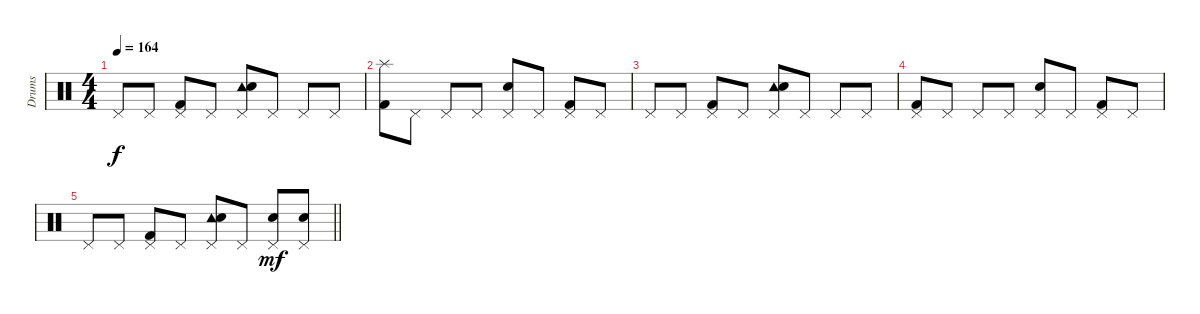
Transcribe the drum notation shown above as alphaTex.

\track ("Drums" "Drums") {instrument percussion}
\staff {score}
\articulation defaults
\ts (4 4)
\tempo 164
\clef neutral
\ks c "Pedal Hi-Hat (hit)".8{dy f} "Pedal Hi-Hat (hit)".8
("Pedal Hi-Hat (hit)" "Kick (hit) 2").8 "Pedal Hi-Hat (hit)".8 ("Tambourine (hit)" "Pedal Hi-Hat (hit)" "Snare (hit) 2").8 "Pedal Hi-Hat (hit)".8 "Pedal Hi-Hat (hit)".8 "Pedal Hi-Hat (hit)".8 |
("Splash (hit)" "Kick (hit) 2").8 "Pedal Hi-Hat (hit)".8 "Pedal Hi-Hat (hit)".8 "Pedal Hi-Hat (hit)".8 ("Pedal Hi-Hat (hit)" "Snare (hit) 2").8 "Pedal Hi-Hat (hit)".8 ("Pedal Hi-Hat (hit)" "Kick (hit) 2").8 "Pedal Hi-Hat (hit)".8 |
"Pedal Hi-Hat (hit)".8 "Pedal Hi-Hat (hit)".8 ("Pedal Hi-Hat (hit)" "Kick (hit) 2").8 "Pedal Hi-Hat (hit)".8 ("Tambourine (hit)" "Pedal Hi-Hat (hit)" "Snare (hit) 2").8 "Pedal Hi-Hat (hit)".8 "Pedal Hi-Hat (hit)".8 "Pedal Hi-Hat (hit)".8 |
("Pedal Hi-Hat (hit)" "Kick (hit) 2").8 "Pedal Hi-Hat (hit)".8 "Pedal Hi-Hat (hit)".8 "Pedal Hi-Hat (hit)".8 ("Pedal Hi-Hat (hit)" "Snare (hit) 2").8 "Pedal Hi-Hat (hit)".8 ("Pedal Hi-Hat (hit)" "Kick (hit) 2").8 "Pedal Hi-Hat (hit)".8 |
\barLineRight lightlight "Pedal Hi-Hat (hit)".8 "Pedal Hi-Hat (hit)".8
("Pedal Hi-Hat (hit)" "Kick (hit) 2").8 "Pedal Hi-Hat (hit)".8 ("Tambourine (hit)" "Pedal Hi-Hat (hit)" "Snare (hit) 2").8 "Pedal Hi-Hat (hit)".8 ("Pedal Hi-Hat (hit)" "Snare (hit) 2").8{dy mf} ("Pedal Hi-Hat (hit)" "Snare (hit) 2").8
